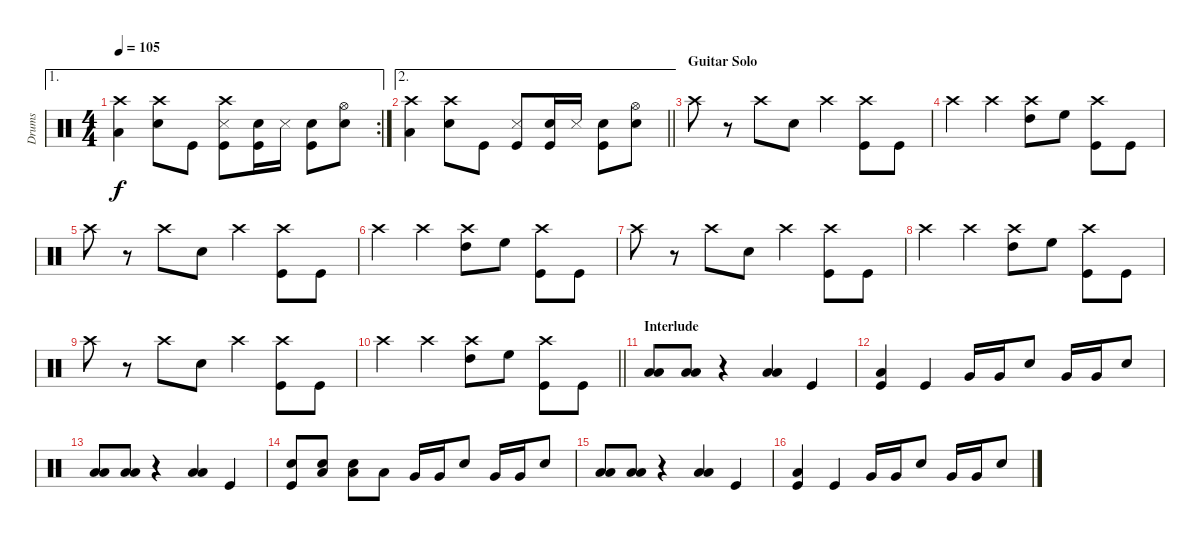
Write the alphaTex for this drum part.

\track ("Drums" "Drums") {instrument percussion}
\staff {score}
\articulation defaults
\ae 1
\rc 2
\ts (4 4)
\tempo 105
\clef neutral
\ks c
("Low Floor Tom (hit)" "Crash high (hit)").4{dy f} ("Snare (hit) 2" "Crash high (hit)").8 "Kick (hit)".8 ("Snare (side stick) 3" "Kick (hit)" "Crash high (hit)").8 ("Kick (hit)" "Snare (hit) 2").16 "Snare (side stick) 3".16 ("Kick (hit)" "Snare (hit) 2").8 ("Hi-Hat (open)" "Snare (hit) 2").8 |
\ae 2
\barLineRight lightlight
("Low Floor Tom (hit)" "Crash high (hit)").4 ("Snare (hit) 2" "Crash high (hit)").8 "Kick (hit)".8 ("Snare (side stick) 3" "Kick (hit)").8 ("Kick (hit)" "Snare (hit) 2").16 "Snare (side stick) 3".16 ("Kick (hit)" "Snare (hit) 2").8 ("Hi-Hat (open)" "Snare (hit) 2").8 |
\section ("" "Guitar Solo")
"Crash high (hit)".8 r.8 "Crash high (hit)".8 "Snare (hit) 2".8 "Crash high (hit)".4 ("Crash high (hit)" "Kick (hit)").8 "Kick (hit)".8 |
"Crash high (hit)".4 "Crash high (hit)".4 ("Crash high (hit)" "High Tom (hit)").8 "High Floor Tom (hit)".8 ("Crash high (hit)" "Kick (hit)").8 "Kick (hit)".8 |
"Crash high (hit)".8 r.8 "Crash high (hit)".8 "Snare (hit) 2".8 "Crash high (hit)".4 ("Crash high (hit)" "Kick (hit)").8 "Kick (hit)".8 |
"Crash high (hit)".4 "Crash high (hit)".4 ("Crash high (hit)" "High Tom (hit)").8 "High Floor Tom (hit)".8 ("Crash high (hit)" "Kick (hit)").8 "Kick (hit)".8 |
"Crash high (hit)".8 r.8 "Crash high (hit)".8 "Snare (hit) 2".8 "Crash high (hit)".4 ("Crash high (hit)" "Kick (hit)").8 "Kick (hit)".8 |
"Crash high (hit)".4 "Crash high (hit)".4 ("Crash high (hit)" "High Tom (hit)").8 "High Floor Tom (hit)".8 ("Crash high (hit)" "Kick (hit)").8 "Kick (hit)".8 |
"Crash high (hit)".8 r.8 "Crash high (hit)".8 "Snare (hit) 2".8 "Crash high (hit)".4 ("Crash high (hit)" "Kick (hit)").8 "Kick (hit)".8 |
\barLineRight lightlight "Crash high (hit)".4 "Crash high (hit)".4
("Crash high (hit)" "High Tom (hit)").8 "High Floor Tom (hit)".8 ("Crash high (hit)" "Kick (hit)").8 "Kick (hit)".8 |
\section ("" "Interlude")
("Low Floor Tom (hit)" "Low Floor Tom (hit)").8{volume 11} ("Low Floor Tom (hit)" "Low Floor Tom (hit)").8 r.4 ("Low Floor Tom (hit)" "Low Floor Tom (hit)").4 "Kick (hit)".4 |
("Kick (hit)" "Low Floor Tom (hit)").4 "Kick (hit)".4 "Very Low Tom (hit)".16 "Very Low Tom (hit)".16 "Snare (hit) 2".8 "Very Low Tom (hit)".16 "Very Low Tom (hit)".16 "Snare (hit) 2".8 |
("Low Floor Tom (hit)" "Low Floor Tom (hit)").8 ("Low Floor Tom (hit)" "Low Floor Tom (hit)").8 r.4 ("Low Floor Tom (hit)" "Low Floor Tom (hit)").4 "Kick (hit)".4 |
("Kick (hit)" "Snare (hit) 2").8 ("Low Floor Tom (hit)" "Snare (hit) 2").8 ("Low Floor Tom (hit)" "Snare (hit) 2").8 "Low Floor Tom (hit)".8 "Very Low Tom (hit)".16 "Very Low Tom (hit)".16 "Snare (hit) 2".8 "Very Low Tom (hit)".16 "Very Low Tom (hit)".16 "Snare (hit) 2".8 |
("Low Floor Tom (hit)" "Low Floor Tom (hit)").8 ("Low Floor Tom (hit)" "Low Floor Tom (hit)").8 r.4 ("Low Floor Tom (hit)" "Low Floor Tom (hit)").4 "Kick (hit)".4 |
("Kick (hit)" "Low Floor Tom (hit)").4 "Kick (hit)".4 "Very Low Tom (hit)".16 "Very Low Tom (hit)".16 "Snare (hit) 2".8 "Very Low Tom (hit)".16 "Very Low Tom (hit)".16 "Snare (hit) 2".8
